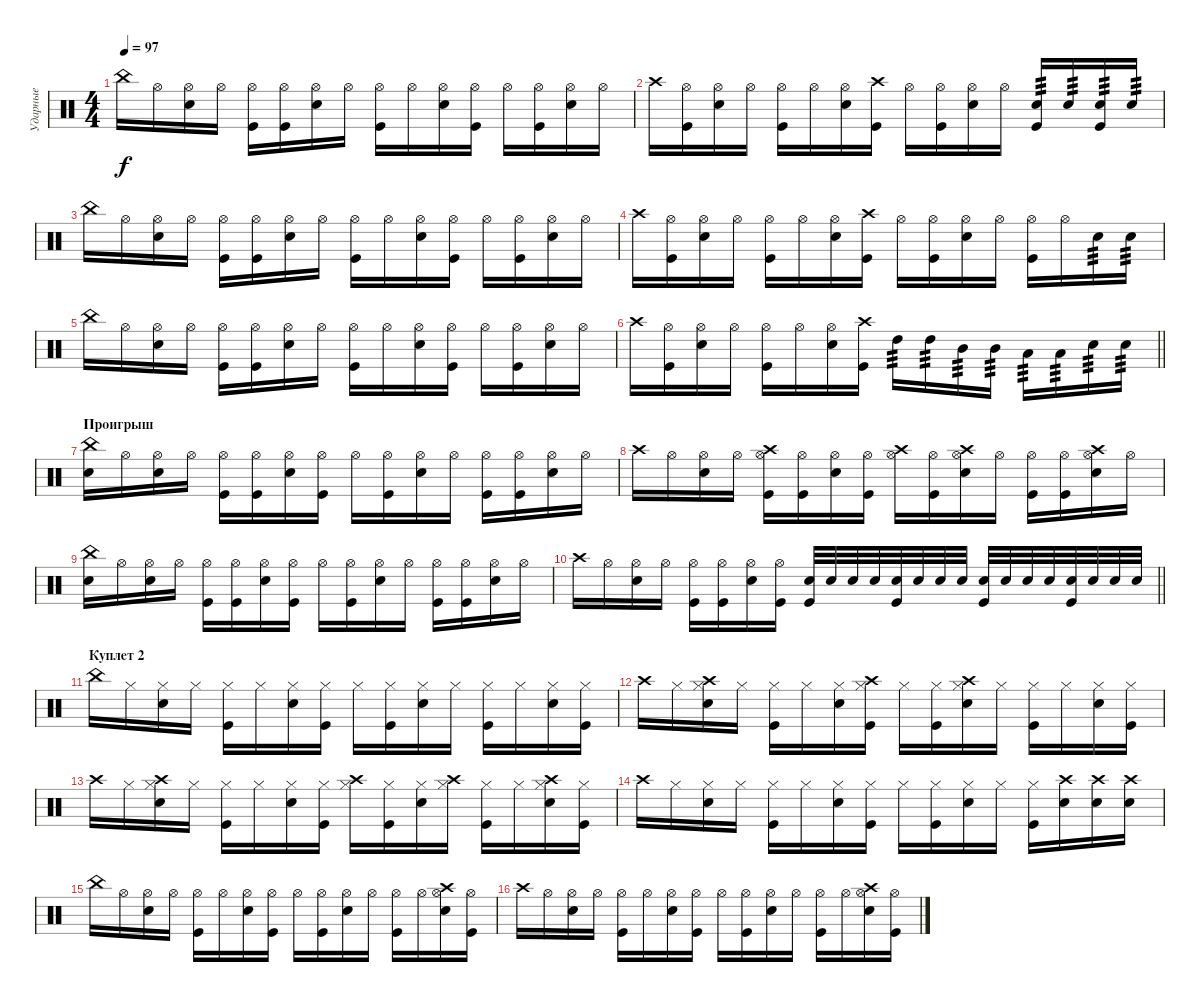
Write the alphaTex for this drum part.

\track ("Ударные" "Ударные") {instrument percussion}
\staff {score}
\articulation defaults
\ts (4 4)
\tempo 97
\clef neutral
\ks c "China (hit)".16{dy f} "Hi-Hat (open)".16
("Hi-Hat (open)" "Electric Snare (hit)").16 "Hi-Hat (open)".16 ("Hi-Hat (open)" "Kick (hit)").16 ("Hi-Hat (open)" "Kick (hit)").16 ("Hi-Hat (open)" "Electric Snare (hit)").16 "Hi-Hat (open)".16 ("Hi-Hat (open)" "Kick (hit)").16 "Hi-Hat (open)".16 ("Hi-Hat (open)" "Electric Snare (hit)").16 ("Hi-Hat (open)" "Kick (hit)").16 "Hi-Hat (open)".16 ("Hi-Hat (open)" "Kick (hit)").16 ("Hi-Hat (open)" "Electric Snare (hit)").16 "Hi-Hat (open)".16 |
"Crash high (hit)".16 ("Hi-Hat (open)" "Kick (hit)").16 ("Hi-Hat (open)" "Electric Snare (hit)").16 "Hi-Hat (open)".16 ("Hi-Hat (open)" "Kick (hit)").16 "Hi-Hat (open)".16 ("Hi-Hat (open)" "Electric Snare (hit)").16 ("Crash high (hit)" "Kick (hit)").16 "Hi-Hat (open)".16 ("Hi-Hat (open)" "Kick (hit)").16 ("Hi-Hat (open)" "Electric Snare (hit)").16 "Hi-Hat (open)".16 ("Electric Snare (hit)" "Kick (hit)").16{tp 3} "Electric Snare (hit)".16{tp 3} ("Electric Snare (hit)" "Kick (hit)").16{tp 3} "Electric Snare (hit)".16{tp 3} |
"China (hit)".16 "Hi-Hat (open)".16 ("Hi-Hat (open)" "Electric Snare (hit)").16 "Hi-Hat (open)".16 ("Hi-Hat (open)" "Kick (hit)").16 ("Hi-Hat (open)" "Kick (hit)").16 ("Hi-Hat (open)" "Electric Snare (hit)").16 "Hi-Hat (open)".16 ("Hi-Hat (open)" "Kick (hit)").16 "Hi-Hat (open)".16 ("Hi-Hat (open)" "Electric Snare (hit)").16 ("Hi-Hat (open)" "Kick (hit)").16 "Hi-Hat (open)".16 ("Hi-Hat (open)" "Kick (hit)").16 ("Hi-Hat (open)" "Electric Snare (hit)").16 "Hi-Hat (open)".16 |
"Crash high (hit)".16 ("Hi-Hat (open)" "Kick (hit)").16 ("Hi-Hat (open)" "Electric Snare (hit)").16 "Hi-Hat (open)".16 ("Hi-Hat (open)" "Kick (hit)").16 "Hi-Hat (open)".16 ("Hi-Hat (open)" "Electric Snare (hit)").16 ("Crash high (hit)" "Kick (hit)").16 "Hi-Hat (open)".16 ("Hi-Hat (open)" "Kick (hit)").16 ("Hi-Hat (open)" "Electric Snare (hit)").16 "Hi-Hat (open)".16 ("Hi-Hat (open)" "Kick (hit)").16 "Hi-Hat (open)".16 "Electric Snare (hit)".16{tp 3} "Electric Snare (hit)".16{tp 3} |
"China (hit)".16 "Hi-Hat (open)".16 ("Hi-Hat (open)" "Electric Snare (hit)").16 "Hi-Hat (open)".16 ("Hi-Hat (open)" "Kick (hit)").16 ("Hi-Hat (open)" "Kick (hit)").16 ("Hi-Hat (open)" "Electric Snare (hit)").16 "Hi-Hat (open)".16 ("Hi-Hat (open)" "Kick (hit)").16 "Hi-Hat (open)".16 ("Hi-Hat (open)" "Electric Snare (hit)").16 ("Hi-Hat (open)" "Kick (hit)").16 "Hi-Hat (open)".16 ("Hi-Hat (open)" "Kick (hit)").16 ("Hi-Hat (open)" "Electric Snare (hit)").16 "Hi-Hat (open)".16 |
\barLineRight lightlight "Crash high (hit)".16
("Hi-Hat (open)" "Kick (hit)").16 ("Hi-Hat (open)" "Electric Snare (hit)").16 "Hi-Hat (open)".16 ("Hi-Hat (open)" "Kick (hit)").16 "Hi-Hat (open)".16 ("Hi-Hat (open)" "Electric Snare (hit)").16 ("Crash high (hit)" "Kick (hit)").16 "High Tom (hit)".16{tp 3} "High Tom (hit)".16{tp 3} "Mid Tom (hit)".16{tp 3} "Mid Tom (hit)".16{tp 3} "Low Tom (hit)".16{tp 3} "Low Tom (hit)".16{tp 3} "Electric Snare (hit)".16{tp 3} "Electric Snare (hit)".16{tp 3} |
\section ("" "Проигрыш")
("China (hit)" "Snare (hit) 2").16 "Hi-Hat (open)".16 ("Hi-Hat (open)" "Electric Snare (hit)").16 "Hi-Hat (open)".16 ("Hi-Hat (open)" "Kick (hit)").16 ("Hi-Hat (open)" "Kick (hit)").16 ("Hi-Hat (open)" "Electric Snare (hit)").16 ("Hi-Hat (open)" "Kick (hit)").16 "Hi-Hat (open)".16 ("Hi-Hat (open)" "Kick (hit)").16 ("Hi-Hat (open)" "Electric Snare (hit)").16 "Hi-Hat (open)".16 ("Hi-Hat (open)" "Kick (hit)").16 ("Hi-Hat (open)" "Kick (hit)").16 ("Hi-Hat (open)" "Electric Snare (hit)").16 "Hi-Hat (open)".16 |
"Crash high (hit)".16 "Hi-Hat (open)".16 ("Hi-Hat (open)" "Electric Snare (hit)").16 "Hi-Hat (open)".16 ("Hi-Hat (open)" "Crash high (hit)" "Kick (hit)").16 ("Hi-Hat (open)" "Kick (hit)").16 ("Hi-Hat (open)" "Electric Snare (hit)").16 ("Hi-Hat (open)" "Kick (hit)").16 ("Crash high (hit)" "Hi-Hat (open)").16 ("Hi-Hat (open)" "Kick (hit)").16 ("Crash high (hit)" "Hi-Hat (open)" "Electric Snare (hit)").16 "Hi-Hat (open)".16 ("Hi-Hat (open)" "Kick (hit)").16 ("Hi-Hat (open)" "Kick (hit)").16 ("Crash high (hit)" "Hi-Hat (open)" "Electric Snare (hit)").16 "Hi-Hat (open)".16 |
("China (hit)" "Snare (hit) 2").16 "Hi-Hat (open)".16 ("Hi-Hat (open)" "Electric Snare (hit)").16 "Hi-Hat (open)".16 ("Hi-Hat (open)" "Kick (hit)").16 ("Hi-Hat (open)" "Kick (hit)").16 ("Hi-Hat (open)" "Electric Snare (hit)").16 ("Hi-Hat (open)" "Kick (hit)").16 "Hi-Hat (open)".16 ("Hi-Hat (open)" "Kick (hit)").16 ("Hi-Hat (open)" "Electric Snare (hit)").16 "Hi-Hat (open)".16 ("Hi-Hat (open)" "Kick (hit)").16 ("Hi-Hat (open)" "Kick (hit)").16 ("Hi-Hat (open)" "Electric Snare (hit)").16 "Hi-Hat (open)".16 |
\barLineRight lightlight "Crash high (hit)".16 "Hi-Hat (open)".16
("Hi-Hat (open)" "Electric Snare (hit)").16 "Hi-Hat (open)".16 ("Hi-Hat (open)" "Kick (hit)").16 ("Hi-Hat (open)" "Kick (hit)").16 ("Hi-Hat (open)" "Electric Snare (hit)").16 ("Hi-Hat (open)" "Kick (hit)").16 ("Electric Snare (hit)" "Kick (hit)").32 "Electric Snare (hit)".32 "Electric Snare (hit)".32 "Electric Snare (hit)".32 ("Electric Snare (hit)" "Kick (hit)").32 "Electric Snare (hit)".32 "Electric Snare (hit)".32 "Electric Snare (hit)".32 ("Electric Snare (hit)" "Kick (hit)").32 "Electric Snare (hit)".32 "Electric Snare (hit)".32 "Electric Snare (hit)".32 ("Electric Snare (hit)" "Kick (hit)").32 "Electric Snare (hit)".32 "Electric Snare (hit)".32 "Electric Snare (hit)".32 |
\section ("" "Куплет 2")
"China (hit)".16 "Hi-Hat (closed)".16 ("Hi-Hat (closed)" "Electric Snare (hit)").16 "Hi-Hat (closed)".16 ("Hi-Hat (closed)" "Kick (hit)").16 "Hi-Hat (closed)".16 ("Hi-Hat (closed)" "Electric Snare (hit)").16 ("Hi-Hat (closed)" "Kick (hit)").16 "Hi-Hat (closed)".16 ("Hi-Hat (closed)" "Kick (hit)").16 ("Hi-Hat (closed)" "Electric Snare (hit)").16 "Hi-Hat (closed)".16 ("Hi-Hat (closed)" "Kick (hit)").16 "Hi-Hat (closed)".16 ("Hi-Hat (closed)" "Electric Snare (hit)").16 ("Hi-Hat (closed)" "Kick (hit)").16 |
"Crash high (hit)".16 "Hi-Hat (closed)".16 ("Crash high (hit)" "Hi-Hat (closed)" "Electric Snare (hit)").16 "Hi-Hat (closed)".16 ("Hi-Hat (closed)" "Kick (hit)").16 "Hi-Hat (closed)".16 ("Hi-Hat (closed)" "Electric Snare (hit)").16 ("Crash high (hit)" "Hi-Hat (closed)" "Kick (hit)").16 "Hi-Hat (closed)".16 ("Hi-Hat (closed)" "Kick (hit)").16 ("Crash high (hit)" "Hi-Hat (closed)" "Electric Snare (hit)").16 "Hi-Hat (closed)".16 ("Hi-Hat (closed)" "Kick (hit)").16 "Hi-Hat (closed)".16 ("Hi-Hat (closed)" "Electric Snare (hit)").16 ("Hi-Hat (closed)" "Kick (hit)").16 |
"Crash high (hit)".16 "Hi-Hat (closed)".16 ("Crash high (hit)" "Hi-Hat (closed)" "Electric Snare (hit)").16 "Hi-Hat (closed)".16 ("Hi-Hat (closed)" "Kick (hit)").16 "Hi-Hat (closed)".16 ("Hi-Hat (closed)" "Electric Snare (hit)").16 ("Hi-Hat (closed)" "Kick (hit)").16 ("Crash high (hit)" "Hi-Hat (closed)").16 ("Hi-Hat (closed)" "Kick (hit)").16 ("Hi-Hat (closed)" "Electric Snare (hit)").16 ("Crash high (hit)" "Hi-Hat (closed)").16 ("Hi-Hat (closed)" "Kick (hit)").16 "Hi-Hat (closed)".16 ("Crash high (hit)" "Hi-Hat (closed)" "Electric Snare (hit)").16 ("Hi-Hat (closed)" "Kick (hit)").16 |
"Crash high (hit)".16 "Hi-Hat (closed)".16 ("Hi-Hat (closed)" "Electric Snare (hit)").16 "Hi-Hat (closed)".16 ("Hi-Hat (closed)" "Kick (hit)").16 "Hi-Hat (closed)".16 ("Hi-Hat (closed)" "Electric Snare (hit)").16 ("Hi-Hat (closed)" "Kick (hit)").16 "Hi-Hat (closed)".16 ("Hi-Hat (closed)" "Kick (hit)").16 ("Hi-Hat (closed)" "Electric Snare (hit)").16 "Hi-Hat (closed)".16 ("Hi-Hat (closed)" "Kick (hit)").16 ("Crash high (hit)" "Snare (hit) 2").16 ("Crash high (hit)" "Snare (hit) 2").16 ("Crash high (hit)" "Snare (hit) 2").16 |
"China (hit)".16 "Hi-Hat (open)".16 ("Hi-Hat (open)" "Electric Snare (hit)").16 "Hi-Hat (open)".16 ("Hi-Hat (open)" "Kick (hit)").16 "Hi-Hat (open)".16 ("Hi-Hat (open)" "Electric Snare (hit)").16 ("Hi-Hat (open)" "Kick (hit)").16 "Hi-Hat (open)".16 ("Hi-Hat (open)" "Kick (hit)").16 ("Hi-Hat (open)" "Electric Snare (hit)").16 "Hi-Hat (open)".16 ("Hi-Hat (open)" "Kick (hit)").16 "Hi-Hat (open)".16 ("Hi-Hat (open)" "Crash high (hit)" "Electric Snare (hit)").16 ("Hi-Hat (open)" "Kick (hit)").16 |
"Crash high (hit)".16 "Hi-Hat (open)".16 ("Hi-Hat (open)" "Electric Snare (hit)").16 "Hi-Hat (open)".16 ("Hi-Hat (open)" "Kick (hit)").16 "Hi-Hat (open)".16 ("Hi-Hat (open)" "Electric Snare (hit)").16 ("Hi-Hat (open)" "Kick (hit)").16 "Hi-Hat (open)".16 ("Hi-Hat (open)" "Kick (hit)").16 ("Hi-Hat (open)" "Electric Snare (hit)").16 "Hi-Hat (open)".16 ("Hi-Hat (open)" "Kick (hit)").16 "Hi-Hat (open)".16 ("Hi-Hat (open)" "Crash high (hit)" "Electric Snare (hit)").16 ("Hi-Hat (open)" "Kick (hit)").16
